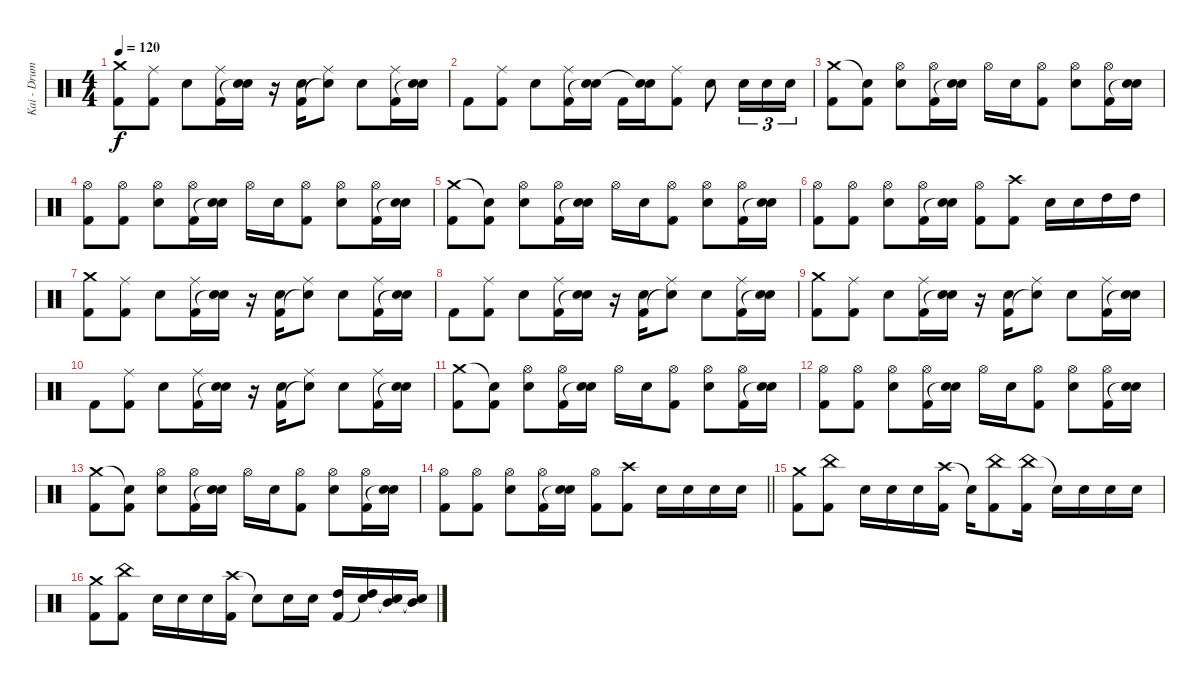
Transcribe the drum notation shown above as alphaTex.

\track ("Kai - Drums" "Kai - Drum") {instrument percussion}
\staff {score}
\articulation defaults
\ts (4 4)
\tempo 120
\clef neutral
\ks c
("Crash medium (hit)" "Kick (hit) 2").8{dy f} ("Ride (middle)" "Kick (hit) 2").8 "Snare (hit) 2".8 ("Ride (middle)" "Kick (hit) 2").16 ("Snare (hit) 2" "Snare (hit)"{t}).16 r.16 ("Snare (hit) 2" "Kick (hit) 2").16 ("Ride (middle)" "Snare (hit)"{t}).8 "Snare (hit) 2".8 ("Ride (middle)" "Kick (hit) 2").16 ("Snare (hit) 2" "Snare (hit)"{t}).16 |
"Kick (hit) 2".8 ("Ride (middle)" "Kick (hit) 2").8 "Snare (hit) 2".8 ("Ride (middle)" "Kick (hit) 2").16 ("Snare (hit) 2" "Snare (hit)"{t}).16 "Kick (hit) 2".16 ("Snare (hit) 2" "Snare (hit)"{t}).16 ("Ride (middle)" "Kick (hit) 2").8 "Snare (hit) 2".8 "Snare (hit) 2".16{tu (3 2)} "Snare (hit) 2".16{tu (3 2)} "Snare (hit) 2".16{tu (3 2)} |
("Crash medium (hit)" "Kick (hit) 2").8 ("Snare (hit)"{t} "Kick (hit) 2").8 ("Hi-Hat (open)" "Snare (hit) 2").8 ("Hi-Hat (open)" "Kick (hit) 2").16 ("Snare (hit) 2" "Snare (hit)"{t}).16 "Hi-Hat (open)".16 "Snare (hit) 2".16 ("Hi-Hat (open)" "Kick (hit) 2").8 ("Hi-Hat (open)" "Snare (hit) 2").8 ("Hi-Hat (open)" "Kick (hit) 2").16 ("Snare (hit) 2" "Snare (hit)"{t}).16 |
("Hi-Hat (open)" "Kick (hit) 2").8 ("Hi-Hat (open)" "Kick (hit) 2").8 ("Hi-Hat (open)" "Snare (hit) 2").8 ("Hi-Hat (open)" "Kick (hit) 2").16 ("Snare (hit) 2" "Snare (hit)"{t}).16 "Hi-Hat (open)".16 "Snare (hit) 2".16 ("Hi-Hat (open)" "Kick (hit) 2").8 ("Hi-Hat (open)" "Snare (hit) 2").8 ("Hi-Hat (open)" "Kick (hit) 2").16 ("Snare (hit) 2" "Snare (hit)"{t}).16 |
("Crash medium (hit)" "Kick (hit) 2").8 ("Snare (hit)"{t} "Kick (hit) 2").8 ("Hi-Hat (open)" "Snare (hit) 2").8 ("Hi-Hat (open)" "Kick (hit) 2").16 ("Snare (hit) 2" "Snare (hit)"{t}).16 "Hi-Hat (open)".16 "Snare (hit) 2".16 ("Hi-Hat (open)" "Kick (hit) 2").8 ("Hi-Hat (open)" "Snare (hit) 2").8 ("Hi-Hat (open)" "Kick (hit) 2").16 ("Snare (hit) 2" "Snare (hit)"{t}).16 |
("Hi-Hat (open)" "Kick (hit) 2").8 ("Hi-Hat (open)" "Kick (hit) 2").8 ("Hi-Hat (open)" "Snare (hit) 2").8 ("Hi-Hat (open)" "Kick (hit) 2").16 ("Snare (hit) 2" "Snare (hit)"{t}).16 ("Hi-Hat (open)" "Kick (hit) 2").8 ("Crash high (hit)" "Kick (hit) 2").8 "Snare (hit) 2".16 "Snare (hit) 2".16 "High Tom (hit)".16 "High Tom (hit)".16 |
("Crash medium (hit)" "Kick (hit) 2").8 ("Ride (middle)" "Kick (hit) 2").8 "Snare (hit) 2".8 ("Ride (middle)" "Kick (hit) 2").16 ("Snare (hit) 2" "Snare (hit)"{t}).16 r.16 ("Snare (hit) 2" "Kick (hit) 2").16 ("Ride (middle)" "Snare (hit)"{t}).8 "Snare (hit) 2".8 ("Ride (middle)" "Kick (hit) 2").16 ("Snare (hit) 2" "Snare (hit)"{t}).16 |
"Kick (hit) 2".8 ("Ride (middle)" "Kick (hit) 2").8 "Snare (hit) 2".8 ("Ride (middle)" "Kick (hit) 2").16 ("Snare (hit) 2" "Snare (hit)"{t}).16 r.16 ("Snare (hit) 2" "Kick (hit) 2").16 ("Ride (middle)" "Snare (hit)"{t}).8 "Snare (hit) 2".8 ("Ride (middle)" "Kick (hit) 2").16 ("Snare (hit) 2" "Snare (hit)"{t}).16 |
("Crash medium (hit)" "Kick (hit) 2").8 ("Ride (middle)" "Kick (hit) 2").8 "Snare (hit) 2".8 ("Ride (middle)" "Kick (hit) 2").16 ("Snare (hit) 2" "Snare (hit)"{t}).16 r.16 ("Snare (hit) 2" "Kick (hit) 2").16 ("Ride (middle)" "Snare (hit)"{t}).8 "Snare (hit) 2".8 ("Ride (middle)" "Kick (hit) 2").16 ("Snare (hit) 2" "Snare (hit)"{t}).16 |
"Kick (hit) 2".8 ("Ride (middle)" "Kick (hit) 2").8 "Snare (hit) 2".8 ("Ride (middle)" "Kick (hit) 2").16 ("Snare (hit) 2" "Snare (hit)"{t}).16 r.16 ("Snare (hit) 2" "Kick (hit) 2").16 ("Ride (middle)" "Snare (hit)"{t}).8 "Snare (hit) 2".8 ("Ride (middle)" "Kick (hit) 2").16 ("Snare (hit) 2" "Snare (hit)"{t}).16 |
("Crash medium (hit)" "Kick (hit) 2").8 ("Snare (hit)"{t} "Kick (hit) 2").8 ("Hi-Hat (open)" "Snare (hit) 2").8 ("Hi-Hat (open)" "Kick (hit) 2").16 ("Snare (hit) 2" "Snare (hit)"{t}).16 "Hi-Hat (open)".16 "Snare (hit) 2".16 ("Hi-Hat (open)" "Kick (hit) 2").8 ("Hi-Hat (open)" "Snare (hit) 2").8 ("Hi-Hat (open)" "Kick (hit) 2").16 ("Snare (hit) 2" "Snare (hit)"{t}).16 |
("Hi-Hat (open)" "Kick (hit) 2").8 ("Hi-Hat (open)" "Kick (hit) 2").8 ("Hi-Hat (open)" "Snare (hit) 2").8 ("Hi-Hat (open)" "Kick (hit) 2").16 ("Snare (hit) 2" "Snare (hit)"{t}).16 "Hi-Hat (open)".16 "Snare (hit) 2".16 ("Hi-Hat (open)" "Kick (hit) 2").8 ("Hi-Hat (open)" "Snare (hit) 2").8 ("Hi-Hat (open)" "Kick (hit) 2").16 ("Snare (hit) 2" "Snare (hit)"{t}).16 |
("Crash medium (hit)" "Kick (hit) 2").8 ("Snare (hit)"{t} "Kick (hit) 2").8 ("Hi-Hat (open)" "Snare (hit) 2").8 ("Hi-Hat (open)" "Kick (hit) 2").16 ("Snare (hit) 2" "Snare (hit)"{t}).16 "Hi-Hat (open)".16 "Snare (hit) 2".16 ("Hi-Hat (open)" "Kick (hit) 2").8 ("Hi-Hat (open)" "Snare (hit) 2").8 ("Hi-Hat (open)" "Kick (hit) 2").16 ("Snare (hit) 2" "Snare (hit)"{t}).16 |
\barLineRight lightlight
("Hi-Hat (open)" "Kick (hit) 2").8 ("Hi-Hat (open)" "Kick (hit) 2").8 ("Hi-Hat (open)" "Snare (hit) 2").8 ("Hi-Hat (open)" "Kick (hit) 2").16 ("Snare (hit) 2" "Snare (hit)"{t}).16 ("Hi-Hat (open)" "Kick (hit) 2").8 ("Crash high (hit)" "Kick (hit) 2").8 "Snare (hit) 2".16 "Snare (hit) 2".16 "Snare (hit) 2".16 "Snare (hit) 2".16 |
("Crash medium (hit)" "Kick (hit) 2").8 ("China (hit)" "Kick (hit) 2").8 "Snare (hit) 2".16 "Snare (hit) 2".16 "Snare (hit) 2".16 ("Crash high (hit)" "Kick (hit) 2").16 "Snare (hit)"{t}.16 ("China (hit)" "Kick (hit) 2").8 ("China (hit)" "Kick (hit) 2").16 "Snare (hit)"{t}.16 "Snare (hit) 2".16 "Snare (hit) 2".16 "Snare (hit) 2".16 |
("Crash medium (hit)" "Kick (hit) 2").8 ("China (hit)" "Kick (hit) 2").8 "Snare (hit) 2".16 "Snare (hit) 2".16 "Snare (hit) 2".16 ("Crash high (hit)" "Kick (hit) 2").16 "Snare (hit)"{t}.8 "Snare (hit) 2".16 "Snare (hit) 2".16 ("High Tom (hit)" "Kick (hit) 2").16 ("High Tom (hit)" "Snare (hit)"{t}).16 ("Mid Tom (hit)" "Snare (hit)"{t}).16 ("Mid Tom (hit)" "Snare (hit)"{t}).16
